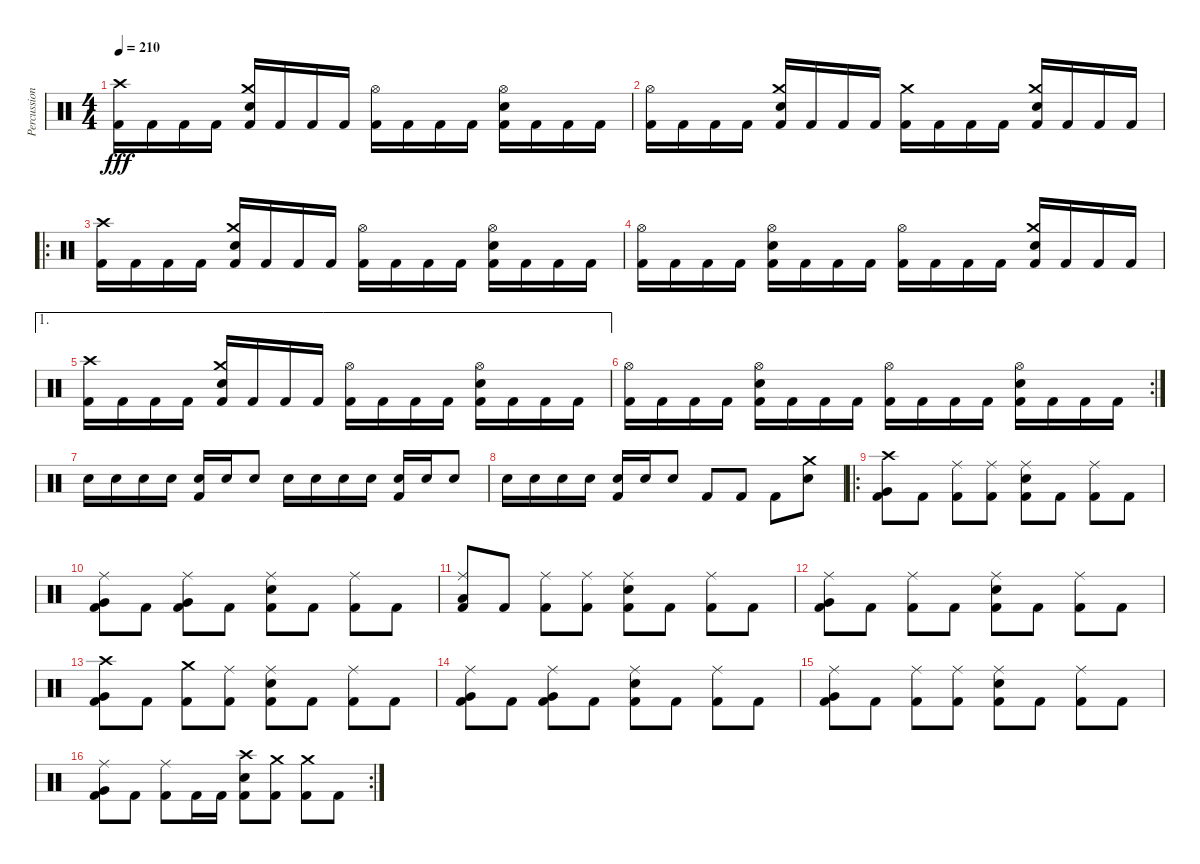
\track ("Percussion" "Percussion") {instrument percussion}
\staff
\articulation defaults
\ts (4 4)
\tempo 210
\clef neutral
\ks c
("Crash high (hit)" "Kick (hit) 2").16{dy fff} "Kick (hit) 2".16 "Kick (hit) 2".16 "Kick (hit) 2".16 ("Crash medium (hit)" "Electric Snare (hit)" "Kick (hit) 2").16 "Kick (hit) 2".16 "Kick (hit) 2".16 "Kick (hit) 2".16 ("Hi-Hat (open)" "Kick (hit) 2").16 "Kick (hit) 2".16 "Kick (hit) 2".16 "Kick (hit) 2".16 ("Hi-Hat (open)" "Electric Snare (hit)" "Kick (hit) 2").16 "Kick (hit) 2".16 "Kick (hit) 2".16 "Kick (hit) 2".16 |
("Hi-Hat (open)" "Kick (hit) 2").16 "Kick (hit) 2".16 "Kick (hit) 2".16 "Kick (hit) 2".16 ("Crash medium (hit)" "Electric Snare (hit)" "Kick (hit) 2").16 "Kick (hit) 2".16 "Kick (hit) 2".16 "Kick (hit) 2".16 ("Crash medium (hit)" "Kick (hit) 2").16 "Kick (hit) 2".16 "Kick (hit) 2".16 "Kick (hit) 2".16 ("Crash medium (hit)" "Electric Snare (hit)" "Kick (hit) 2").16 "Kick (hit) 2".16 "Kick (hit) 2".16 "Kick (hit) 2".16 |
\ro
("Crash high (hit)" "Kick (hit) 2").16 "Kick (hit) 2".16 "Kick (hit) 2".16 "Kick (hit) 2".16 ("Crash medium (hit)" "Electric Snare (hit)" "Kick (hit) 2").16 "Kick (hit) 2".16 "Kick (hit) 2".16 "Kick (hit) 2".16 ("Hi-Hat (open)" "Kick (hit) 2").16 "Kick (hit) 2".16 "Kick (hit) 2".16 "Kick (hit) 2".16 ("Hi-Hat (open)" "Electric Snare (hit)" "Kick (hit) 2").16 "Kick (hit) 2".16 "Kick (hit) 2".16 "Kick (hit) 2".16 |
("Hi-Hat (open)" "Kick (hit) 2").16 "Kick (hit) 2".16 "Kick (hit) 2".16 "Kick (hit) 2".16 ("Hi-Hat (open)" "Electric Snare (hit)" "Kick (hit) 2").16 "Kick (hit) 2".16 "Kick (hit) 2".16 "Kick (hit) 2".16 ("Hi-Hat (open)" "Kick (hit) 2").16 "Kick (hit) 2".16 "Kick (hit) 2".16 "Kick (hit) 2".16 ("Crash medium (hit)" "Electric Snare (hit)" "Kick (hit) 2").16 "Kick (hit) 2".16 "Kick (hit) 2".16 "Kick (hit) 2".16 |
\ae 1
("Crash high (hit)" "Kick (hit) 2").16 "Kick (hit) 2".16 "Kick (hit) 2".16 "Kick (hit) 2".16 ("Crash medium (hit)" "Electric Snare (hit)" "Kick (hit) 2").16 "Kick (hit) 2".16 "Kick (hit) 2".16 "Kick (hit) 2".16 ("Hi-Hat (open)" "Kick (hit) 2").16 "Kick (hit) 2".16 "Kick (hit) 2".16 "Kick (hit) 2".16 ("Hi-Hat (open)" "Electric Snare (hit)" "Kick (hit) 2").16 "Kick (hit) 2".16 "Kick (hit) 2".16 "Kick (hit) 2".16 |
\rc 2
("Hi-Hat (open)" "Kick (hit) 2").16 "Kick (hit) 2".16 "Kick (hit) 2".16 "Kick (hit) 2".16 ("Hi-Hat (open)" "Electric Snare (hit)" "Kick (hit) 2").16 "Kick (hit) 2".16 "Kick (hit) 2".16 "Kick (hit) 2".16 ("Hi-Hat (open)" "Kick (hit) 2").16 "Kick (hit) 2".16 "Kick (hit) 2".16 "Kick (hit) 2".16 ("Hi-Hat (open)" "Electric Snare (hit)" "Kick (hit) 2").16 "Kick (hit) 2".16 "Kick (hit) 2".16 "Kick (hit) 2".16 |
"Electric Snare (hit)".16 "Electric Snare (hit)".16 "Electric Snare (hit)".16 "Electric Snare (hit)".16 ("Electric Snare (hit)" "Kick (hit) 2").16 "Electric Snare (hit)".16 "Electric Snare (hit)".8 "Electric Snare (hit)".16 "Electric Snare (hit)".16 "Electric Snare (hit)".16 "Electric Snare (hit)".16 ("Electric Snare (hit)" "Kick (hit) 2").16 "Electric Snare (hit)".16 "Electric Snare (hit)".8 |
"Electric Snare (hit)".16 "Electric Snare (hit)".16 "Electric Snare (hit)".16 "Electric Snare (hit)".16 ("Electric Snare (hit)" "Kick (hit) 2").16 "Electric Snare (hit)".16 "Electric Snare (hit)".8 "Kick (hit) 2".8 "Kick (hit) 2".8 "Kick (hit) 2".8 ("Crash medium (hit)" "Electric Snare (hit)").8 |
\ro
("Crash high (hit)" "Very Low Tom (hit)" "Kick (hit) 2").8 "Kick (hit) 2".8 ("Ride (middle)" "Kick (hit) 2").8 ("Ride (middle)" "Kick (hit) 2").8 ("Ride (middle)" "Electric Snare (hit)" "Kick (hit) 2").8 "Kick (hit) 2".8 ("Ride (middle)" "Kick (hit) 2").8 "Kick (hit) 2".8 |
("Ride (middle)" "Very Low Tom (hit)" "Kick (hit) 2").8 "Kick (hit) 2".8 ("Ride (middle)" "Very Low Tom (hit)" "Kick (hit) 2").8 "Kick (hit) 2".8 ("Ride (middle)" "Electric Snare (hit)" "Kick (hit) 2").8 "Kick (hit) 2".8 ("Ride (middle)" "Kick (hit) 2").8 "Kick (hit) 2".8 |
("Ride (middle)" "Low Tom (hit)" "Kick (hit) 2").8 "Kick (hit) 2".8 ("Ride (middle)" "Kick (hit) 2").8 ("Ride (middle)" "Kick (hit) 2").8 ("Ride (middle)" "Electric Snare (hit)" "Kick (hit) 2").8 "Kick (hit) 2".8 ("Ride (middle)" "Kick (hit) 2").8 "Kick (hit) 2".8 |
("Ride (middle)" "Very Low Tom (hit)" "Kick (hit) 2").8 "Kick (hit) 2".8 ("Ride (middle)" "Kick (hit) 2").8 "Kick (hit) 2".8 ("Ride (middle)" "Electric Snare (hit)" "Kick (hit) 2").8 "Kick (hit) 2".8 ("Ride (middle)" "Kick (hit) 2").8 "Kick (hit) 2".8 |
("Crash high (hit)" "Very Low Tom (hit)" "Kick (hit) 2").8 "Kick (hit) 2".8 ("Crash medium (hit)" "Kick (hit) 2").8 ("Ride (middle)" "Kick (hit) 2").8 ("Ride (middle)" "Electric Snare (hit)" "Kick (hit) 2").8 "Kick (hit) 2".8 ("Ride (middle)" "Kick (hit) 2").8 "Kick (hit) 2".8 |
("Ride (middle)" "Very Low Tom (hit)" "Kick (hit) 2").8 "Kick (hit) 2".8 ("Ride (middle)" "Very Low Tom (hit)" "Kick (hit) 2").8 "Kick (hit) 2".8 ("Ride (middle)" "Electric Snare (hit)" "Kick (hit) 2").8 "Kick (hit) 2".8 ("Ride (middle)" "Kick (hit) 2").8 "Kick (hit) 2".8 |
("Ride (middle)" "Very Low Tom (hit)" "Kick (hit) 2").8 "Kick (hit) 2".8 ("Ride (middle)" "Kick (hit) 2").8 ("Ride (middle)" "Kick (hit) 2").8 ("Ride (middle)" "Electric Snare (hit)" "Kick (hit) 2").8 "Kick (hit) 2".8 ("Ride (middle)" "Kick (hit) 2").8 "Kick (hit) 2".8 |
\rc 2
("Ride (middle)" "Very Low Tom (hit)" "Kick (hit) 2").8 "Kick (hit) 2".8 ("Ride (middle)" "Kick (hit) 2").8 "Kick (hit) 2".16 "Kick (hit) 2".16 ("Crash high (hit)" "Electric Snare (hit)" "Kick (hit) 2").8 ("Crash medium (hit)" "Kick (hit) 2").8 ("Crash medium (hit)" "Kick (hit) 2").8 "Kick (hit) 2".8
